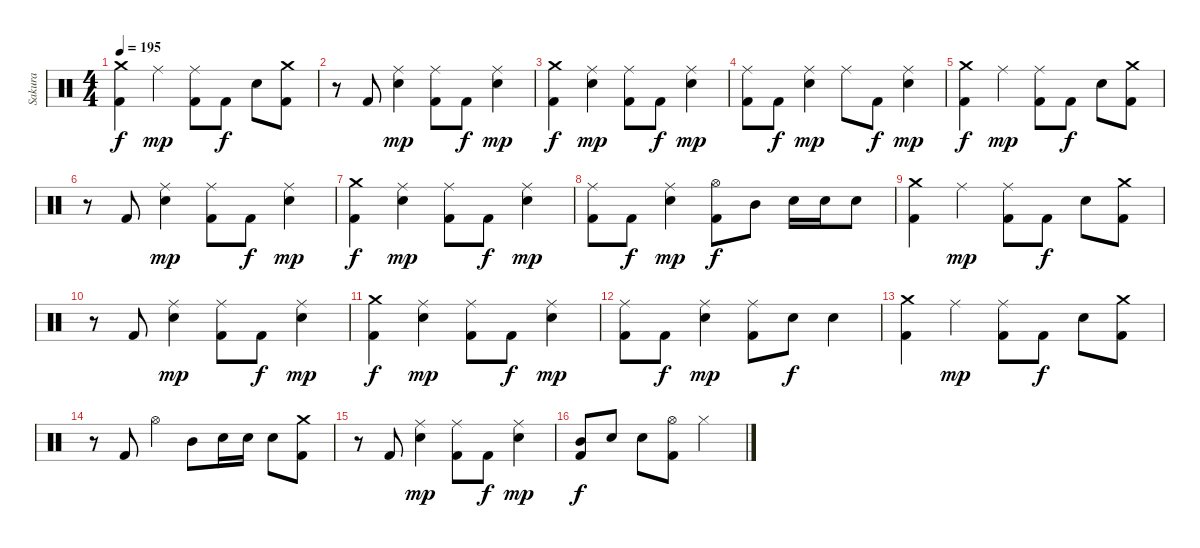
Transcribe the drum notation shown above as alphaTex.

\track ("Sakura" "Sakura") {instrument percussion}
\staff {score}
\articulation defaults
\ts (4 4)
\tempo 195
\clef neutral
\ks c
("Crash medium (hit)" "Kick (hit) 2").4{dy f} "Ride (middle)".4{dy mp} ("Ride (middle)" "Kick (hit) 2").8 "Kick (hit) 2".8{dy f} "Snare (hit) 2".8 ("Crash medium (hit)" "Kick (hit) 2").8 |
r.8 "Kick (hit) 2".8 ("Ride (middle)" "Snare (hit) 2").4{dy mp} ("Ride (middle)" "Kick (hit) 2").8 "Kick (hit) 2".8{dy f} ("Ride (middle)" "Snare (hit) 2").4{dy mp} |
("Crash medium (hit)" "Kick (hit) 2").4{dy f} ("Ride (middle)" "Snare (hit) 2").4{dy mp} ("Ride (middle)" "Kick (hit) 2").8 "Kick (hit) 2".8{dy f} ("Ride (middle)" "Snare (hit) 2").4{dy mp} |
("Ride (middle)" "Kick (hit) 2").8 "Kick (hit) 2".8{dy f} ("Ride (middle)" "Snare (hit) 2").4{dy mp} "Ride (middle)".8 "Kick (hit) 2".8{dy f} ("Ride (middle)" "Snare (hit) 2").4{dy mp} |
("Crash medium (hit)" "Kick (hit) 2").4{dy f} "Ride (middle)".4{dy mp} ("Ride (middle)" "Kick (hit) 2").8 "Kick (hit) 2".8{dy f} "Snare (hit) 2".8 ("Crash medium (hit)" "Kick (hit) 2").8 |
r.8 "Kick (hit) 2".8 ("Ride (middle)" "Snare (hit) 2").4{dy mp} ("Ride (middle)" "Kick (hit) 2").8 "Kick (hit) 2".8{dy f} ("Ride (middle)" "Snare (hit) 2").4{dy mp} |
("Crash medium (hit)" "Kick (hit) 2").4{dy f} ("Ride (middle)" "Snare (hit) 2").4{dy mp} ("Ride (middle)" "Kick (hit) 2").8 "Kick (hit) 2".8{dy f} ("Ride (middle)" "Snare (hit) 2").4{dy mp} |
("Ride (middle)" "Kick (hit) 2").8 "Kick (hit) 2".8{dy f} ("Ride (middle)" "Snare (hit) 2").4{dy mp} ("Hi-Hat (open)" "Kick (hit) 2").8{dy f} "Mid Tom (hit)".8 "Snare (hit) 2".16 "Snare (hit) 2".16 "Snare (hit) 2".8 |
("Crash medium (hit)" "Kick (hit) 2").4 "Ride (middle)".4{dy mp} ("Ride (middle)" "Kick (hit) 2").8 "Kick (hit) 2".8{dy f} "Snare (hit) 2".8 ("Crash medium (hit)" "Kick (hit) 2").8 |
r.8 "Kick (hit) 2".8 ("Ride (middle)" "Snare (hit) 2").4{dy mp} ("Ride (middle)" "Kick (hit) 2").8 "Kick (hit) 2".8{dy f} ("Ride (middle)" "Snare (hit) 2").4{dy mp} |
("Crash medium (hit)" "Kick (hit) 2").4{dy f} ("Ride (middle)" "Snare (hit) 2").4{dy mp} ("Ride (middle)" "Kick (hit) 2").8 "Kick (hit) 2".8{dy f} ("Ride (middle)" "Snare (hit) 2").4{dy mp} |
("Ride (middle)" "Kick (hit) 2").8 "Kick (hit) 2".8{dy f} ("Ride (middle)" "Snare (hit) 2").4{dy mp} ("Ride (middle)" "Kick (hit) 2").8 "Snare (hit) 2".8{dy f} "Snare (hit) 2".4 |
("Crash medium (hit)" "Kick (hit) 2").4 "Ride (middle)".4{dy mp} ("Ride (middle)" "Kick (hit) 2").8 "Kick (hit) 2".8{dy f} "Snare (hit) 2".8 ("Crash medium (hit)" "Kick (hit) 2").8 |
r.8 "Kick (hit) 2".8 "Hi-Hat (open)".4 "Mid Tom (hit)".8 "Snare (hit) 2".16 "Snare (hit) 2".16 "Snare (hit) 2".8 ("Crash medium (hit)" "Kick (hit) 2").8 |
r.8 "Kick (hit) 2".8 ("Ride (middle)" "Snare (hit) 2").4{dy mp} ("Ride (middle)" "Kick (hit) 2").8 "Kick (hit) 2".8{dy f} ("Ride (middle)" "Snare (hit) 2").4{dy mp} |
("Mid Tom (hit)" "Kick (hit) 2").8{dy f} "Snare (hit) 2".8 "Snare (hit) 2".8 ("Hi-Hat (open)" "Kick (hit) 2").8 "Hi-Hat (closed)".2
